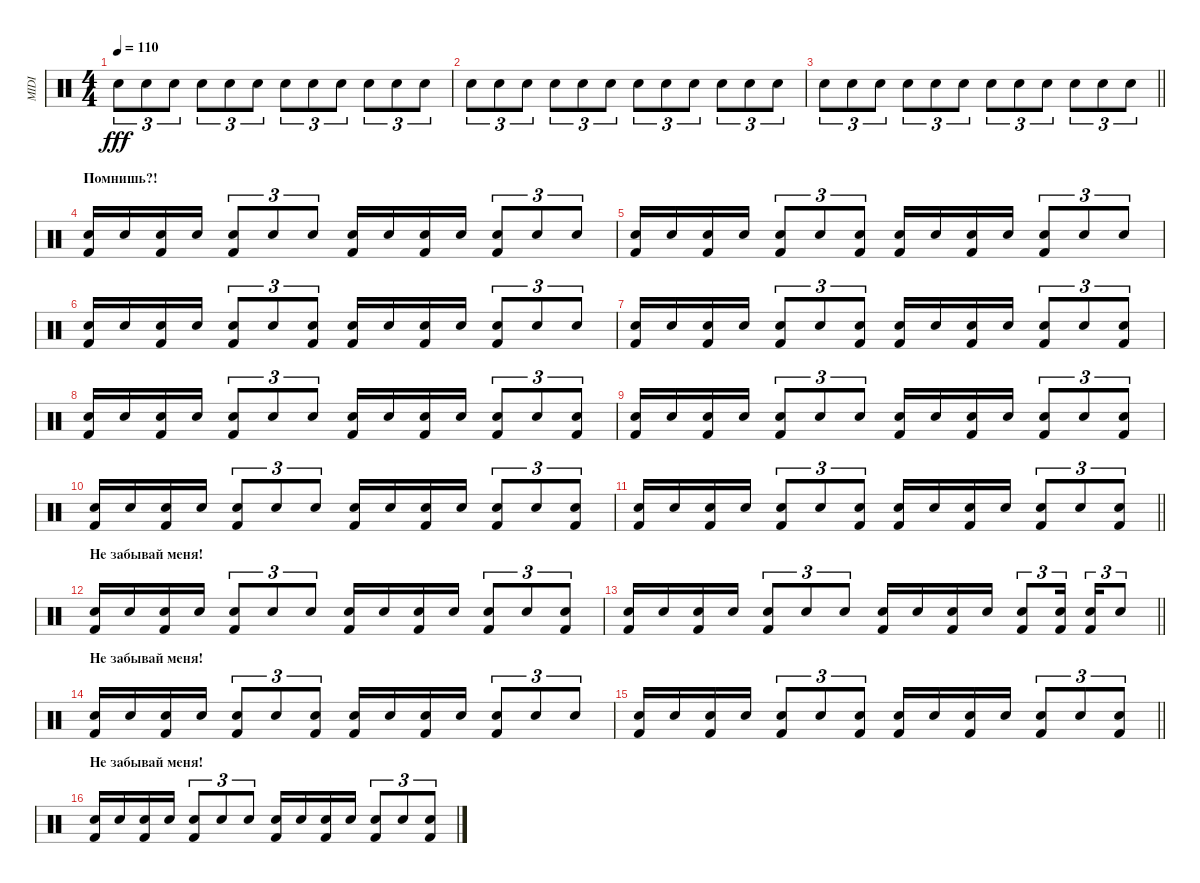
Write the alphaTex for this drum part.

\track ("MIDI" "MIDI") {instrument percussion}
\staff
\articulation defaults
\ts (4 4)
\tempo 110
\clef neutral
\ks c "Snare (hit)".8{tu (3 2) dy fff} "Snare (hit)".8{tu (3 2)} "Snare (hit)".8{tu (3 2)} "Snare (hit)".8{tu (3 2)} "Snare (hit)".8{tu (3 2)} "Snare (hit)".8{tu (3 2)} "Snare (hit)".8{tu (3 2)} "Snare (hit)".8{tu (3 2)} "Snare (hit)".8{tu (3 2)} "Snare (hit)".8{tu (3 2)} "Snare (hit)".8{tu (3 2)} "Snare (hit)".8{tu (3 2)}
|
"Snare (hit)".8{tu (3 2)} "Snare (hit)".8{tu (3 2)} "Snare (hit)".8{tu (3 2)} "Snare (hit)".8{tu (3 2)} "Snare (hit)".8{tu (3 2)} "Snare (hit)".8{tu (3 2)} "Snare (hit)".8{tu (3 2)} "Snare (hit)".8{tu (3 2)} "Snare (hit)".8{tu (3 2)} "Snare (hit)".8{tu (3 2)} "Snare (hit)".8{tu (3 2)} "Snare (hit)".8{tu (3 2)} |
\barLineRight lightlight "Snare (hit)".8{tu (3 2)} "Snare (hit)".8{tu (3 2)} "Snare (hit)".8{tu (3 2)} "Snare (hit)".8{tu (3 2)} "Snare (hit)".8{tu (3 2)} "Snare (hit)".8{tu (3 2)} "Snare (hit)".8{tu (3 2)} "Snare (hit)".8{tu (3 2)} "Snare (hit)".8{tu (3 2)} "Snare (hit)".8{tu (3 2)} "Snare (hit)".8{tu (3 2)} "Snare (hit)".8{tu (3 2)}
|
\section ("" "Помнишь?!")
("Kick (hit) 2" "Snare (hit)").16 "Snare (hit)".16 ("Kick (hit) 2" "Snare (hit)").16 "Snare (hit)".16 ("Kick (hit) 2" "Snare (hit)").8{tu (3 2)} "Snare (hit)".8{tu (3 2)} "Snare (hit)".8{tu (3 2)} ("Kick (hit) 2" "Snare (hit)").16 "Snare (hit)".16 ("Kick (hit) 2" "Snare (hit)").16 "Snare (hit)".16 ("Kick (hit) 2" "Snare (hit)").8{tu (3 2)} "Snare (hit)".8{tu (3 2)} "Snare (hit)".8{tu (3 2)} |
("Kick (hit) 2" "Snare (hit)").16 "Snare (hit)".16 ("Kick (hit) 2" "Snare (hit)").16 "Snare (hit)".16 ("Kick (hit) 2" "Snare (hit)").8{tu (3 2)} "Snare (hit)".8{tu (3 2)} ("Kick (hit) 2" "Snare (hit)").8{tu (3 2)} ("Kick (hit) 2" "Snare (hit)").16 "Snare (hit)".16 ("Kick (hit) 2" "Snare (hit)").16 "Snare (hit)".16 ("Kick (hit) 2" "Snare (hit)").8{tu (3 2)} "Snare (hit)".8{tu (3 2)} "Snare (hit)".8{tu (3 2)} |
("Kick (hit) 2" "Snare (hit)").16 "Snare (hit)".16 ("Kick (hit) 2" "Snare (hit)").16 "Snare (hit)".16 ("Kick (hit) 2" "Snare (hit)").8{tu (3 2)} "Snare (hit)".8{tu (3 2)} ("Kick (hit) 2" "Snare (hit)").8{tu (3 2)} ("Kick (hit) 2" "Snare (hit)").16 "Snare (hit)".16 ("Kick (hit) 2" "Snare (hit)").16 "Snare (hit)".16 ("Kick (hit) 2" "Snare (hit)").8{tu (3 2)} "Snare (hit)".8{tu (3 2)} "Snare (hit)".8{tu (3 2)} |
("Kick (hit) 2" "Snare (hit)").16 "Snare (hit)".16 ("Kick (hit) 2" "Snare (hit)").16 "Snare (hit)".16 ("Kick (hit) 2" "Snare (hit)").8{tu (3 2)} "Snare (hit)".8{tu (3 2)} ("Kick (hit) 2" "Snare (hit)").8{tu (3 2)} ("Kick (hit) 2" "Snare (hit)").16 "Snare (hit)".16 ("Kick (hit) 2" "Snare (hit)").16 "Snare (hit)".16 ("Kick (hit) 2" "Snare (hit)").8{tu (3 2)} "Snare (hit)".8{tu (3 2)} ("Kick (hit) 2" "Snare (hit)").8{tu (3 2)} |
("Kick (hit) 2" "Snare (hit)").16 "Snare (hit)".16 ("Kick (hit) 2" "Snare (hit)").16 "Snare (hit)".16 ("Kick (hit) 2" "Snare (hit)").8{tu (3 2)} "Snare (hit)".8{tu (3 2)} "Snare (hit)".8{tu (3 2)} ("Kick (hit) 2" "Snare (hit)").16 "Snare (hit)".16 ("Kick (hit) 2" "Snare (hit)").16 "Snare (hit)".16 ("Kick (hit) 2" "Snare (hit)").8{tu (3 2)} "Snare (hit)".8{tu (3 2)} ("Kick (hit) 2" "Snare (hit)").8{tu (3 2)} |
("Kick (hit) 2" "Snare (hit)").16 "Snare (hit)".16 ("Kick (hit) 2" "Snare (hit)").16 "Snare (hit)".16 ("Kick (hit) 2" "Snare (hit)").8{tu (3 2)} "Snare (hit)".8{tu (3 2)} "Snare (hit)".8{tu (3 2)} ("Kick (hit) 2" "Snare (hit)").16 "Snare (hit)".16 ("Kick (hit) 2" "Snare (hit)").16 "Snare (hit)".16 ("Kick (hit) 2" "Snare (hit)").8{tu (3 2)} "Snare (hit)".8{tu (3 2)} ("Kick (hit) 2" "Snare (hit)").8{tu (3 2)} |
("Kick (hit) 2" "Snare (hit)").16 "Snare (hit)".16 ("Kick (hit) 2" "Snare (hit)").16 "Snare (hit)".16 ("Kick (hit) 2" "Snare (hit)").8{tu (3 2)} "Snare (hit)".8{tu (3 2)} "Snare (hit)".8{tu (3 2)} ("Kick (hit) 2" "Snare (hit)").16 "Snare (hit)".16 ("Kick (hit) 2" "Snare (hit)").16 "Snare (hit)".16 ("Kick (hit) 2" "Snare (hit)").8{tu (3 2)} "Snare (hit)".8{tu (3 2)} ("Kick (hit) 2" "Snare (hit)").8{tu (3 2)} |
\barLineRight lightlight
("Kick (hit) 2" "Snare (hit)").16 "Snare (hit)".16 ("Kick (hit) 2" "Snare (hit)").16 "Snare (hit)".16 ("Kick (hit) 2" "Snare (hit)").8{tu (3 2)} "Snare (hit)".8{tu (3 2)} ("Kick (hit) 2" "Snare (hit)").8{tu (3 2)} ("Kick (hit) 2" "Snare (hit)").16 "Snare (hit)".16 ("Kick (hit) 2" "Snare (hit)").16 "Snare (hit)".16 ("Kick (hit) 2" "Snare (hit)").8{tu (3 2)} "Snare (hit)".8{tu (3 2)} ("Kick (hit) 2" "Snare (hit)").8{tu (3 2)} |
\section ("" "Не забывай меня!")
("Kick (hit) 2" "Snare (hit)").16 "Snare (hit)".16 ("Kick (hit) 2" "Snare (hit)").16 "Snare (hit)".16 ("Kick (hit) 2" "Snare (hit)").8{tu (3 2)} "Snare (hit)".8{tu (3 2)} "Snare (hit)".8{tu (3 2)} ("Kick (hit) 2" "Snare (hit)").16 "Snare (hit)".16 ("Kick (hit) 2" "Snare (hit)").16 "Snare (hit)".16 ("Kick (hit) 2" "Snare (hit)").8{tu (3 2)} "Snare (hit)".8{tu (3 2)} ("Kick (hit) 2" "Snare (hit)").8{tu (3 2)} |
\barLineRight lightlight
("Kick (hit) 2" "Snare (hit)").16 "Snare (hit)".16 ("Kick (hit) 2" "Snare (hit)").16 "Snare (hit)".16 ("Kick (hit) 2" "Snare (hit)").8{tu (3 2)} "Snare (hit)".8{tu (3 2)} "Snare (hit)".8{tu (3 2)} ("Kick (hit) 2" "Snare (hit)").16 "Snare (hit)".16 ("Kick (hit) 2" "Snare (hit)").16 "Snare (hit)".16 ("Kick (hit) 2" "Snare (hit)").8{tu (3 2)} ("Kick (hit) 2" "Snare (hit)").16{tu (3 2) beam splitsecondary} ("Kick (hit) 2" "Snare (hit)").16{tu (3 2)} "Snare (hit)".8{tu (3 2)} |
\section ("" "Не забывай меня!")
("Kick (hit) 2" "Snare (hit)").16 "Snare (hit)".16 ("Kick (hit) 2" "Snare (hit)").16 "Snare (hit)".16 ("Kick (hit) 2" "Snare (hit)").8{tu (3 2)} "Snare (hit)".8{tu (3 2)} ("Kick (hit) 2" "Snare (hit)").8{tu (3 2)} ("Kick (hit) 2" "Snare (hit)").16 "Snare (hit)".16 ("Kick (hit) 2" "Snare (hit)").16 "Snare (hit)".16 ("Kick (hit) 2" "Snare (hit)").8{tu (3 2)} "Snare (hit)".8{tu (3 2)} "Snare (hit)".8{tu (3 2)} |
\barLineRight lightlight
("Kick (hit) 2" "Snare (hit)").16 "Snare (hit)".16 ("Kick (hit) 2" "Snare (hit)").16 "Snare (hit)".16 ("Kick (hit) 2" "Snare (hit)").8{tu (3 2)} "Snare (hit)".8{tu (3 2)} ("Kick (hit) 2" "Snare (hit)").8{tu (3 2)} ("Kick (hit) 2" "Snare (hit)").16 "Snare (hit)".16 ("Kick (hit) 2" "Snare (hit)").16 "Snare (hit)".16 ("Kick (hit) 2" "Snare (hit)").8{tu (3 2)} "Snare (hit)".8{tu (3 2)} ("Kick (hit) 2" "Snare (hit)").8{tu (3 2)} |
\section ("" "Не забывай меня!")
("Kick (hit) 2" "Snare (hit)").16 "Snare (hit)".16 ("Kick (hit) 2" "Snare (hit)").16 "Snare (hit)".16 ("Kick (hit) 2" "Snare (hit)").8{tu (3 2)} "Snare (hit)".8{tu (3 2)} "Snare (hit)".8{tu (3 2)} ("Kick (hit) 2" "Snare (hit)").16 "Snare (hit)".16 ("Kick (hit) 2" "Snare (hit)").16 "Snare (hit)".16 ("Kick (hit) 2" "Snare (hit)").8{tu (3 2)} "Snare (hit)".8{tu (3 2)} ("Kick (hit) 2" "Snare (hit)").8{tu (3 2)}
